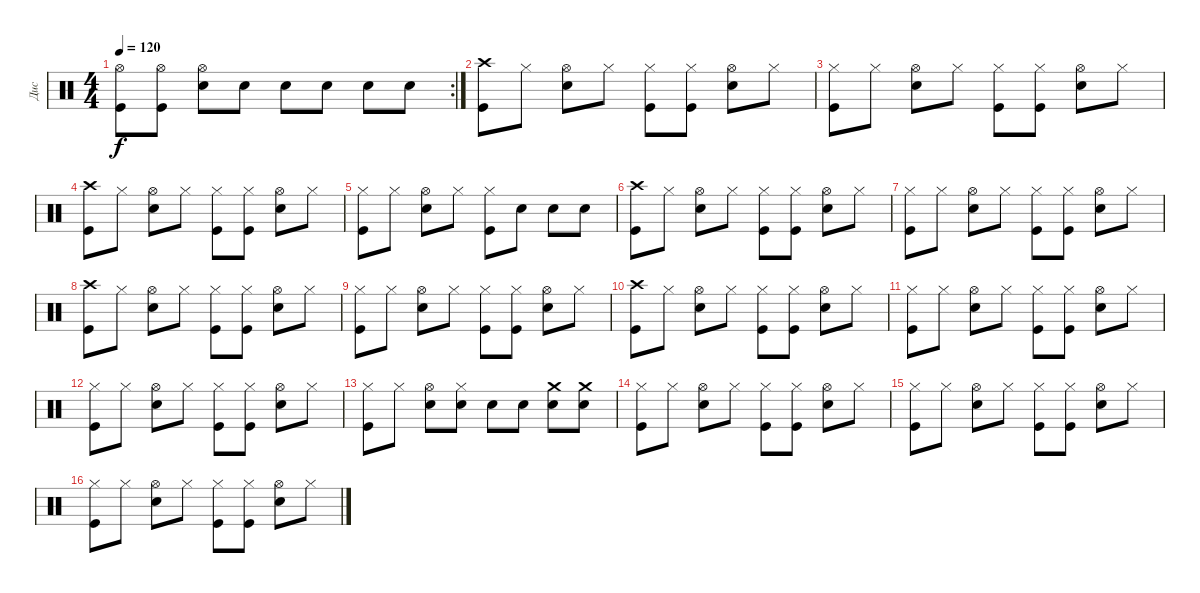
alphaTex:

\track ("Дис" "Дис") {instrument percussion}
\staff {score}
\articulation defaults
\rc 2
\ts (4 4)
\tempo 120
\clef neutral
\ks c
("Hi-Hat (open)" "Kick (hit)").8{dy f} ("Hi-Hat (open)" "Kick (hit)").8 ("Hi-Hat (open)" "Snare (hit) 2").8 "Electric Snare (hit)".8 "Electric Snare (hit)".8 "Electric Snare (hit)".8 "Electric Snare (hit)".8 "Electric Snare (hit)".8 |
("Crash high (hit)" "Kick (hit)").8 "Hi-Hat (closed)".8 ("Hi-Hat (open)" "Snare (hit) 2").8 "Hi-Hat (closed)".8 ("Hi-Hat (closed)" "Kick (hit)").8 ("Hi-Hat (closed)" "Kick (hit)").8 ("Hi-Hat (open)" "Electric Snare (hit)").8 "Hi-Hat (closed)".8 |
("Hi-Hat (closed)" "Kick (hit)").8 "Hi-Hat (closed)".8 ("Hi-Hat (open)" "Electric Snare (hit)").8 "Hi-Hat (closed)".8 ("Hi-Hat (closed)" "Kick (hit)").8 ("Hi-Hat (closed)" "Kick (hit)").8 ("Hi-Hat (open)" "Electric Snare (hit)").8 "Hi-Hat (closed)".8 |
("Crash high (hit)" "Kick (hit)").8 "Hi-Hat (closed)".8 ("Hi-Hat (open)" "Electric Snare (hit)").8 "Hi-Hat (closed)".8 ("Hi-Hat (closed)" "Kick (hit)").8 ("Hi-Hat (closed)" "Kick (hit)").8 ("Hi-Hat (open)" "Electric Snare (hit)").8 "Hi-Hat (closed)".8 |
("Hi-Hat (closed)" "Kick (hit)").8 "Hi-Hat (closed)".8 ("Hi-Hat (open)" "Electric Snare (hit)").8 "Hi-Hat (closed)".8 ("Hi-Hat (closed)" "Kick (hit)").8 "Electric Snare (hit)".8 "Electric Snare (hit)".8 "Electric Snare (hit)".8 |
("Crash high (hit)" "Kick (hit)").8 "Hi-Hat (closed)".8 ("Hi-Hat (open)" "Electric Snare (hit)").8 "Hi-Hat (closed)".8 ("Hi-Hat (closed)" "Kick (hit)").8 ("Hi-Hat (closed)" "Kick (hit)").8 ("Hi-Hat (open)" "Electric Snare (hit)").8 "Hi-Hat (closed)".8 |
("Hi-Hat (closed)" "Kick (hit)").8 "Hi-Hat (closed)".8 ("Hi-Hat (open)" "Electric Snare (hit)").8 "Hi-Hat (closed)".8 ("Hi-Hat (closed)" "Kick (hit)").8 ("Hi-Hat (closed)" "Kick (hit)").8 ("Hi-Hat (open)" "Electric Snare (hit)").8 "Hi-Hat (closed)".8 |
("Crash high (hit)" "Kick (hit)").8 "Hi-Hat (closed)".8 ("Hi-Hat (open)" "Electric Snare (hit)").8 "Hi-Hat (closed)".8 ("Hi-Hat (closed)" "Kick (hit)").8 ("Hi-Hat (closed)" "Kick (hit)").8 ("Hi-Hat (open)" "Electric Snare (hit)").8 "Hi-Hat (closed)".8 |
("Hi-Hat (closed)" "Kick (hit)").8 "Hi-Hat (closed)".8 ("Hi-Hat (open)" "Electric Snare (hit)").8 "Hi-Hat (closed)".8 ("Hi-Hat (closed)" "Kick (hit)").8 ("Hi-Hat (closed)" "Kick (hit)").8 ("Hi-Hat (open)" "Electric Snare (hit)").8 "Hi-Hat (closed)".8 |
("Crash high (hit)" "Kick (hit)").8 "Hi-Hat (closed)".8 ("Hi-Hat (open)" "Electric Snare (hit)").8 "Hi-Hat (closed)".8 ("Hi-Hat (closed)" "Kick (hit)").8 ("Hi-Hat (closed)" "Kick (hit)").8 ("Hi-Hat (open)" "Electric Snare (hit)").8 "Hi-Hat (closed)".8 |
("Hi-Hat (closed)" "Kick (hit)").8 "Hi-Hat (closed)".8 ("Hi-Hat (open)" "Electric Snare (hit)").8 "Hi-Hat (closed)".8 ("Hi-Hat (closed)" "Kick (hit)").8 ("Hi-Hat (closed)" "Kick (hit)").8 ("Hi-Hat (open)" "Electric Snare (hit)").8 "Hi-Hat (closed)".8 |
("Hi-Hat (closed)" "Kick (hit)").8 "Hi-Hat (closed)".8 ("Hi-Hat (open)" "Electric Snare (hit)").8 "Hi-Hat (closed)".8 ("Hi-Hat (closed)" "Kick (hit)").8 ("Hi-Hat (closed)" "Kick (hit)").8 ("Hi-Hat (open)" "Electric Snare (hit)").8 "Hi-Hat (closed)".8 |
("Hi-Hat (closed)" "Kick (hit)").8 "Hi-Hat (closed)".8 ("Hi-Hat (open)" "Snare (hit) 2").8 ("Hi-Hat (closed)" "Snare (hit) 2").8 "Electric Snare (hit)".8 "Electric Snare (hit)".8 ("Crash medium (hit)" "Electric Snare (hit)").8 ("Crash medium (hit)" "Electric Snare (hit)").8 |
("Hi-Hat (closed)" "Kick (hit)").8 "Hi-Hat (closed)".8 ("Hi-Hat (open)" "Electric Snare (hit)").8 "Hi-Hat (closed)".8 ("Hi-Hat (closed)" "Kick (hit)").8 ("Hi-Hat (closed)" "Kick (hit)").8 ("Hi-Hat (open)" "Electric Snare (hit)").8 "Hi-Hat (closed)".8 |
("Hi-Hat (closed)" "Kick (hit)").8 "Hi-Hat (closed)".8 ("Hi-Hat (open)" "Electric Snare (hit)").8 "Hi-Hat (closed)".8 ("Hi-Hat (closed)" "Kick (hit)").8 ("Hi-Hat (closed)" "Kick (hit)").8 ("Hi-Hat (open)" "Electric Snare (hit)").8 "Hi-Hat (closed)".8 |
("Hi-Hat (closed)" "Kick (hit)").8 "Hi-Hat (closed)".8 ("Hi-Hat (open)" "Electric Snare (hit)").8 "Hi-Hat (closed)".8 ("Hi-Hat (closed)" "Kick (hit)").8 ("Hi-Hat (closed)" "Kick (hit)").8 ("Hi-Hat (open)" "Electric Snare (hit)").8 "Hi-Hat (closed)".8
